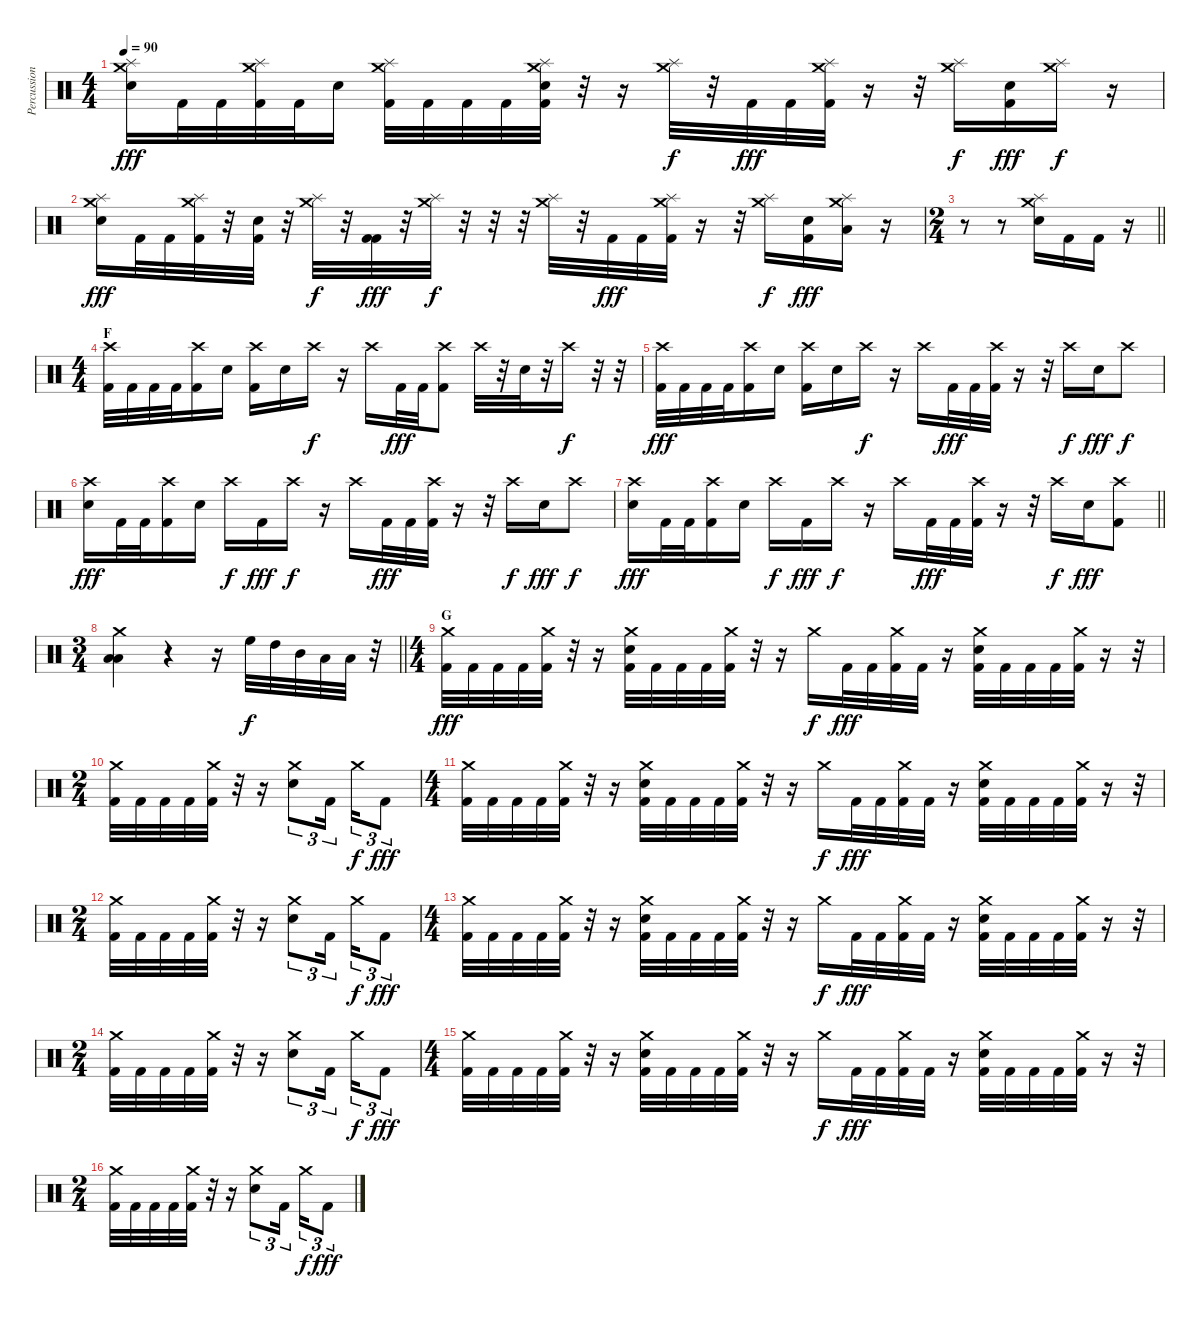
\track ("Percussions" "Percussion") {instrument percussion}
\staff {score}
\articulation defaults
\ts (4 4)
\tempo 90
\clef neutral
\ks c
("Crash medium (hit)" "Splash (hit)" "Snare (hit) 2").16{dy fff} "Kick (hit) 2".32 "Kick (hit) 2".32 ("Crash medium (hit)" "Splash (hit)" "Kick (hit) 2").32 "Kick (hit) 2".32 "Snare (hit) 2".16 ("Crash medium (hit)" "Splash (hit)" "Kick (hit) 2").32 "Kick (hit) 2".32 "Kick (hit) 2".32 "Kick (hit) 2".32 ("Crash medium (hit)" "Splash (hit)" "Snare (hit) 2" "Kick (hit) 2").32 r.32 r.16 ("Crash medium (hit)" "Splash (hit)").32{dy f} r.32 "Kick (hit) 2".32{dy fff} "Kick (hit) 2".32 ("Crash medium (hit)" "Splash (hit)" "Kick (hit) 2").32 r.16 r.32 ("Crash medium (hit)" "Splash (hit)").16{dy f} ("Snare (hit) 2" "Kick (hit) 2").16{dy fff} ("Crash medium (hit)" "Splash (hit)").16{dy f} r.16 |
("Crash medium (hit)" "Splash (hit)" "Snare (hit) 2").16{dy fff} "Kick (hit) 2".32 "Kick (hit) 2".32 ("Crash medium (hit)" "Splash (hit)" "Kick (hit) 2").32 r.32 ("Snare (hit) 2" "Kick (hit) 2").32 r.32 ("Crash medium (hit)" "Splash (hit)").32{dy f} r.32 ("Kick (hit) 2" "Kick (hit) 2").32{dy fff} r.32 ("Crash medium (hit)" "Splash (hit)").32{dy f} r.32 r.32 r.32 ("Crash medium (hit)" "Splash (hit)").32 r.32 "Kick (hit) 2".32{dy fff} "Kick (hit) 2".32 ("Crash medium (hit)" "Splash (hit)" "Kick (hit) 2").32 r.16 r.32 ("Crash medium (hit)" "Splash (hit)").16{dy f} ("Snare (hit) 2" "Kick (hit) 2").16{dy fff} ("Crash medium (hit)" "Splash (hit)" "Low Tom (hit)").16 r.16 |
\ts (2 4)
\barLineRight lightlight
r.8 r.8 ("Crash medium (hit)" "Splash (hit)" "Snare (hit) 2").16 "Kick (hit) 2".16 "Kick (hit) 2".16 r.16 |
\ts (4 4)
\section ("" "F")
("Crash high (hit)" "Kick (hit) 2").32 "Kick (hit) 2".32 "Kick (hit) 2".32 "Kick (hit) 2".32 ("Crash high (hit)" "Kick (hit) 2").16 "Snare (hit) 2".16 ("Crash high (hit)" "Kick (hit) 2").16 "Snare (hit) 2".16 "Crash high (hit)".16{dy f} r.16 "Crash high (hit)".16 "Kick (hit) 2".32{dy fff} "Kick (hit) 2".32 ("Crash high (hit)" "Kick (hit) 2").8 "Crash high (hit)".32 r.32 "Snare (hit) 2".32 r.32 "Crash high (hit)".16{dy f} r.32 r.32 |
("Crash high (hit)" "Kick (hit) 2").32{dy fff} "Kick (hit) 2".32 "Kick (hit) 2".32 "Kick (hit) 2".32 ("Crash high (hit)" "Kick (hit) 2").16 "Snare (hit) 2".16 ("Crash high (hit)" "Kick (hit) 2").16 "Snare (hit) 2".16 "Crash high (hit)".16{dy f} r.16 "Crash high (hit)".16 "Kick (hit) 2".32{dy fff} "Kick (hit) 2".32 ("Crash high (hit)" "Kick (hit) 2").32 r.16 r.32 "Crash high (hit)".16{dy f} "Snare (hit) 2".16{dy fff} "Crash high (hit)".8{dy f} |
("Crash high (hit)" "Snare (hit) 2").16{dy fff} "Kick (hit) 2".32 "Kick (hit) 2".32 ("Crash high (hit)" "Kick (hit) 2").16 "Snare (hit) 2".16 "Crash high (hit)".16{dy f} "Kick (hit) 2".16{dy fff} "Crash high (hit)".16{dy f} r.16 "Crash high (hit)".16 "Kick (hit) 2".32{dy fff} "Kick (hit) 2".32 ("Crash high (hit)" "Kick (hit) 2").32 r.16 r.32 "Crash high (hit)".16{dy f} "Snare (hit) 2".16{dy fff} "Crash high (hit)".8{dy f} |
\barLineRight lightlight
("Crash high (hit)" "Snare (hit) 2").16{dy fff} "Kick (hit) 2".32 "Kick (hit) 2".32 ("Crash high (hit)" "Kick (hit) 2").16 "Snare (hit) 2".16 "Crash high (hit)".16{dy f} "Kick (hit) 2".16{dy fff} "Crash high (hit)".16{dy f} r.16 "Crash high (hit)".16 "Kick (hit) 2".32{dy fff} "Kick (hit) 2".32 ("Crash high (hit)" "Kick (hit) 2").32 r.16 r.32 "Crash high (hit)".16{dy f} "Snare (hit) 2".16{dy fff} ("Crash high (hit)" "Kick (hit) 2").8 |
\ts (3 4)
\section ("" "")
\barLineRight lightlight
("Crash medium (hit)" "Low Tom (hit)" "Low Floor Tom (hit)").4 r.4 r.16 "High Floor Tom (hit)".32{dy f} "High Tom (hit)".32 "Mid Tom (hit)".32 "Low Tom (hit)".32 "Low Floor Tom (hit)".32 r.32 |
\ts (4 4)
\section ("" "G")
("Crash medium (hit)" "Kick (hit) 2").32{dy fff} "Kick (hit) 2".32 "Kick (hit) 2".32 "Kick (hit) 2".32 ("Crash medium (hit)" "Kick (hit) 2").32 r.32 r.16 ("Crash medium (hit)" "Snare (hit) 2" "Kick (hit) 2").32 "Kick (hit) 2".32 "Kick (hit) 2".32 "Kick (hit) 2".32 ("Crash medium (hit)" "Kick (hit) 2").32 r.32 r.16 "Crash medium (hit)".16{dy f} "Kick (hit) 2".32{dy fff} "Kick (hit) 2".32 ("Crash medium (hit)" "Kick (hit) 2").32 "Kick (hit) 2".32 r.16 ("Crash medium (hit)" "Snare (hit) 2" "Kick (hit) 2").32 "Kick (hit) 2".32 "Kick (hit) 2".32 "Kick (hit) 2".32 ("Crash medium (hit)" "Kick (hit) 2").32 r.16 r.32 |
\ts (2 4)
("Crash medium (hit)" "Kick (hit) 2").32 "Kick (hit) 2".32 "Kick (hit) 2".32 "Kick (hit) 2".32 ("Crash medium (hit)" "Kick (hit) 2").32 r.32 r.16 ("Crash medium (hit)" "Snare (hit) 2").8{tu (3 2)} "Kick (hit) 2".16{tu (3 2) beam splitsecondary} "Crash medium (hit)".16{tu (3 2) dy f} "Kick (hit) 2".8{tu (3 2) dy fff} |
\ts (4 4)
("Crash medium (hit)" "Kick (hit) 2").32 "Kick (hit) 2".32 "Kick (hit) 2".32 "Kick (hit) 2".32 ("Crash medium (hit)" "Kick (hit) 2").32 r.32 r.16 ("Crash medium (hit)" "Snare (hit) 2" "Kick (hit) 2").32 "Kick (hit) 2".32 "Kick (hit) 2".32 "Kick (hit) 2".32 ("Crash medium (hit)" "Kick (hit) 2").32 r.32 r.16 "Crash medium (hit)".16{dy f} "Kick (hit) 2".32{dy fff} "Kick (hit) 2".32 ("Crash medium (hit)" "Kick (hit) 2").32 "Kick (hit) 2".32 r.16 ("Crash medium (hit)" "Snare (hit) 2" "Kick (hit) 2").32 "Kick (hit) 2".32 "Kick (hit) 2".32 "Kick (hit) 2".32 ("Crash medium (hit)" "Kick (hit) 2").32 r.16 r.32 |
\ts (2 4)
("Crash medium (hit)" "Kick (hit) 2").32 "Kick (hit) 2".32 "Kick (hit) 2".32 "Kick (hit) 2".32 ("Crash medium (hit)" "Kick (hit) 2").32 r.32 r.16 ("Crash medium (hit)" "Snare (hit) 2").8{tu (3 2)} "Kick (hit) 2".16{tu (3 2) beam splitsecondary} "Crash medium (hit)".16{tu (3 2) dy f} "Kick (hit) 2".8{tu (3 2) dy fff} |
\ts (4 4)
("Crash medium (hit)" "Kick (hit) 2").32 "Kick (hit) 2".32 "Kick (hit) 2".32 "Kick (hit) 2".32 ("Crash medium (hit)" "Kick (hit) 2").32 r.32 r.16 ("Crash medium (hit)" "Snare (hit) 2" "Kick (hit) 2").32 "Kick (hit) 2".32 "Kick (hit) 2".32 "Kick (hit) 2".32 ("Crash medium (hit)" "Kick (hit) 2").32 r.32 r.16 "Crash medium (hit)".16{dy f} "Kick (hit) 2".32{dy fff} "Kick (hit) 2".32 ("Crash medium (hit)" "Kick (hit) 2").32 "Kick (hit) 2".32 r.16 ("Crash medium (hit)" "Snare (hit) 2" "Kick (hit) 2").32 "Kick (hit) 2".32 "Kick (hit) 2".32 "Kick (hit) 2".32 ("Crash medium (hit)" "Kick (hit) 2").32 r.16 r.32 |
\ts (2 4)
("Crash medium (hit)" "Kick (hit) 2").32 "Kick (hit) 2".32 "Kick (hit) 2".32 "Kick (hit) 2".32 ("Crash medium (hit)" "Kick (hit) 2").32 r.32 r.16 ("Crash medium (hit)" "Snare (hit) 2").8{tu (3 2)} "Kick (hit) 2".16{tu (3 2) beam splitsecondary} "Crash medium (hit)".16{tu (3 2) dy f} "Kick (hit) 2".8{tu (3 2) dy fff} |
\ts (4 4)
("Crash medium (hit)" "Kick (hit) 2").32 "Kick (hit) 2".32 "Kick (hit) 2".32 "Kick (hit) 2".32 ("Crash medium (hit)" "Kick (hit) 2").32 r.32 r.16 ("Crash medium (hit)" "Snare (hit) 2" "Kick (hit) 2").32 "Kick (hit) 2".32 "Kick (hit) 2".32 "Kick (hit) 2".32 ("Crash medium (hit)" "Kick (hit) 2").32 r.32 r.16 "Crash medium (hit)".16{dy f} "Kick (hit) 2".32{dy fff} "Kick (hit) 2".32 ("Crash medium (hit)" "Kick (hit) 2").32 "Kick (hit) 2".32 r.16 ("Crash medium (hit)" "Snare (hit) 2" "Kick (hit) 2").32 "Kick (hit) 2".32 "Kick (hit) 2".32 "Kick (hit) 2".32 ("Crash medium (hit)" "Kick (hit) 2").32 r.16 r.32 |
\ts (2 4)
("Crash medium (hit)" "Kick (hit) 2").32 "Kick (hit) 2".32 "Kick (hit) 2".32 "Kick (hit) 2".32 ("Crash medium (hit)" "Kick (hit) 2").32 r.32 r.16 ("Crash medium (hit)" "Snare (hit) 2").8{tu (3 2)} "Kick (hit) 2".16{tu (3 2) beam splitsecondary} "Crash medium (hit)".16{tu (3 2) dy f} "Kick (hit) 2".8{tu (3 2) dy fff}
